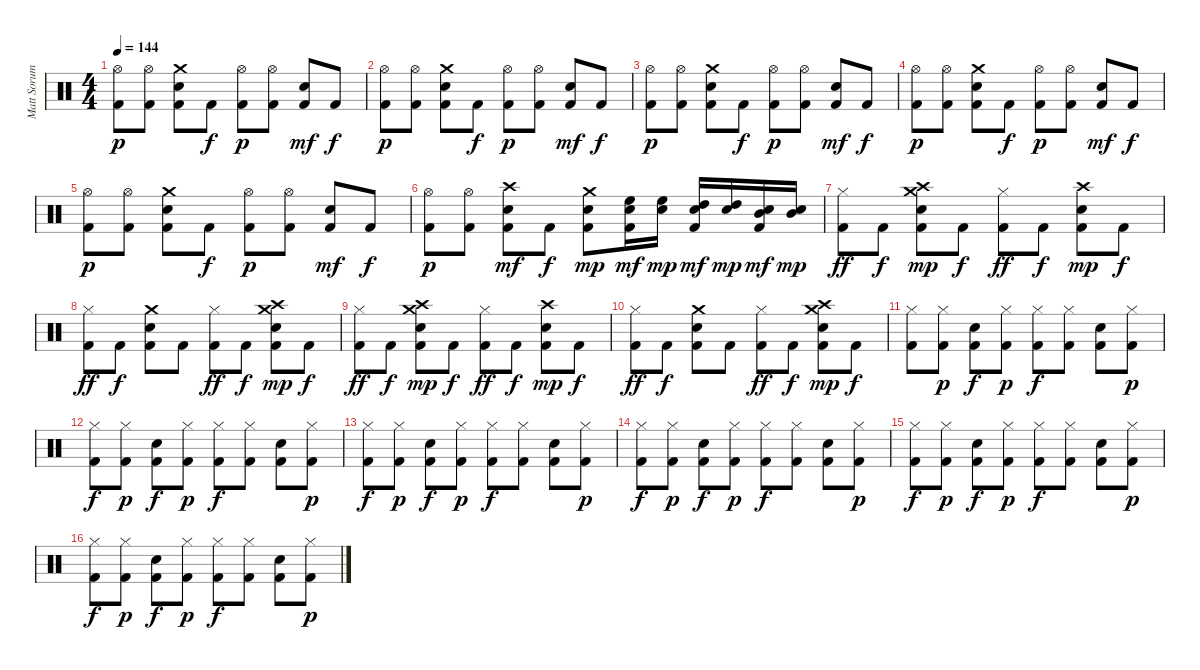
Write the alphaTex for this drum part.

\track ("Matt Sorum" "Matt Sorum") {instrument percussion}
\staff {score}
\articulation defaults
\ts (4 4)
\tempo 144
\clef neutral
\ks c
("Kick (hit) 2" "Hi-Hat (open)").8{dy p} ("Kick (hit) 2" "Hi-Hat (open)").8 ("Kick (hit) 2" "Snare (hit) 2" "Crash medium (hit)").8 "Kick (hit) 2".8{dy f} ("Kick (hit) 2" "Hi-Hat (open)").8{dy p} ("Kick (hit) 2" "Hi-Hat (open)").8 ("Kick (hit) 2" "Snare (hit) 2").8{dy mf} "Kick (hit) 2".8{dy f} |
("Kick (hit) 2" "Hi-Hat (open)").8{dy p} ("Kick (hit) 2" "Hi-Hat (open)").8 ("Kick (hit) 2" "Snare (hit) 2" "Crash medium (hit)").8 "Kick (hit) 2".8{dy f} ("Kick (hit) 2" "Hi-Hat (open)").8{dy p} ("Kick (hit) 2" "Hi-Hat (open)").8 ("Kick (hit) 2" "Snare (hit) 2").8{dy mf} "Kick (hit) 2".8{dy f} |
("Kick (hit) 2" "Hi-Hat (open)").8{dy p} ("Kick (hit) 2" "Hi-Hat (open)").8 ("Kick (hit) 2" "Snare (hit) 2" "Crash medium (hit)").8 "Kick (hit) 2".8{dy f} ("Kick (hit) 2" "Hi-Hat (open)").8{dy p} ("Kick (hit) 2" "Hi-Hat (open)").8 ("Kick (hit) 2" "Snare (hit) 2").8{dy mf} "Kick (hit) 2".8{dy f} |
("Kick (hit) 2" "Hi-Hat (open)").8{dy p} ("Kick (hit) 2" "Hi-Hat (open)").8 ("Kick (hit) 2" "Snare (hit) 2" "Crash medium (hit)").8 "Kick (hit) 2".8{dy f} ("Kick (hit) 2" "Hi-Hat (open)").8{dy p} ("Kick (hit) 2" "Hi-Hat (open)").8 ("Kick (hit) 2" "Snare (hit) 2").8{dy mf} "Kick (hit) 2".8{dy f} |
("Kick (hit) 2" "Hi-Hat (open)").8{dy p} ("Kick (hit) 2" "Hi-Hat (open)").8 ("Kick (hit) 2" "Snare (hit) 2" "Crash medium (hit)").8 "Kick (hit) 2".8{dy f} ("Kick (hit) 2" "Hi-Hat (open)").8{dy p} ("Kick (hit) 2" "Hi-Hat (open)").8 ("Kick (hit) 2" "Snare (hit) 2").8{dy mf} "Kick (hit) 2".8{dy f} |
("Kick (hit) 2" "Hi-Hat (open)").8{dy p} ("Kick (hit) 2" "Hi-Hat (open)").8 ("Kick (hit) 2" "Snare (hit) 2" "Crash high (hit)").8{dy mf} "Kick (hit) 2".8{dy f} ("Kick (hit) 2" "Snare (hit) 2" "Crash medium (hit)").8{dy mp} ("Kick (hit) 2" "Snare (hit) 2" "High Floor Tom (hit)").16{dy mf} ("Snare (hit) 2" "High Floor Tom (hit)").16{dy mp} ("Kick (hit) 2" "Snare (hit) 2" "High Tom (hit)").16{dy mf} ("Snare (hit) 2" "High Tom (hit)").16{dy mp} ("Kick (hit) 2" "Snare (hit) 2" "Mid Tom (hit)").16{dy mf} ("Snare (hit) 2" "Mid Tom (hit)").16{dy mp} |
("Kick (hit) 2" "Hi-Hat (closed)").8{dy ff} "Kick (hit) 2".8{dy f} ("Kick (hit) 2" "Snare (hit) 2" "Crash medium (hit)" "Crash high (hit)").8{dy mp} "Kick (hit) 2".8{dy f} ("Kick (hit) 2" "Hi-Hat (closed)").8{dy ff} "Kick (hit) 2".8{dy f} ("Kick (hit) 2" "Snare (hit) 2" "Crash high (hit)").8{dy mp} "Kick (hit) 2".8{dy f} |
("Kick (hit) 2" "Hi-Hat (closed)").8{dy ff} "Kick (hit) 2".8{dy f} ("Kick (hit) 2" "Snare (hit) 2" "Crash medium (hit)").8 "Kick (hit) 2".8 ("Kick (hit) 2" "Hi-Hat (closed)").8{dy ff} "Kick (hit) 2".8{dy f} ("Kick (hit) 2" "Snare (hit) 2" "Crash medium (hit)" "Crash high (hit)").8{dy mp} "Kick (hit) 2".8{dy f} |
("Kick (hit) 2" "Hi-Hat (closed)").8{dy ff} "Kick (hit) 2".8{dy f} ("Kick (hit) 2" "Snare (hit) 2" "Crash medium (hit)" "Crash high (hit)").8{dy mp} "Kick (hit) 2".8{dy f} ("Kick (hit) 2" "Hi-Hat (closed)").8{dy ff} "Kick (hit) 2".8{dy f} ("Kick (hit) 2" "Snare (hit) 2" "Crash high (hit)").8{dy mp} "Kick (hit) 2".8{dy f} |
("Kick (hit) 2" "Hi-Hat (closed)").8{dy ff} "Kick (hit) 2".8{dy f} ("Kick (hit) 2" "Snare (hit) 2" "Crash medium (hit)").8 "Kick (hit) 2".8 ("Kick (hit) 2" "Hi-Hat (closed)").8{dy ff} "Kick (hit) 2".8{dy f} ("Kick (hit) 2" "Snare (hit) 2" "Crash medium (hit)" "Crash high (hit)").8{dy mp} "Kick (hit) 2".8{dy f} |
("Kick (hit) 2" "Hi-Hat (closed)").8 ("Kick (hit) 2" "Hi-Hat (closed)").8{dy p} ("Kick (hit) 2" "Snare (hit) 2").8{dy f} ("Kick (hit) 2" "Hi-Hat (closed)").8{dy p} ("Kick (hit) 2" "Hi-Hat (closed)").8{dy f} ("Kick (hit) 2" "Hi-Hat (closed)").8 ("Kick (hit) 2" "Snare (hit) 2").8 ("Kick (hit) 2" "Hi-Hat (closed)").8{dy p} |
("Kick (hit) 2" "Hi-Hat (closed)").8{dy f} ("Kick (hit) 2" "Hi-Hat (closed)").8{dy p} ("Kick (hit) 2" "Snare (hit) 2").8{dy f} ("Kick (hit) 2" "Hi-Hat (closed)").8{dy p} ("Kick (hit) 2" "Hi-Hat (closed)").8{dy f} ("Kick (hit) 2" "Hi-Hat (closed)").8 ("Kick (hit) 2" "Snare (hit) 2").8 ("Kick (hit) 2" "Hi-Hat (closed)").8{dy p} |
("Kick (hit) 2" "Hi-Hat (closed)").8{dy f} ("Kick (hit) 2" "Hi-Hat (closed)").8{dy p} ("Kick (hit) 2" "Snare (hit) 2").8{dy f} ("Kick (hit) 2" "Hi-Hat (closed)").8{dy p} ("Kick (hit) 2" "Hi-Hat (closed)").8{dy f} ("Kick (hit) 2" "Hi-Hat (closed)").8 ("Kick (hit) 2" "Snare (hit) 2").8 ("Kick (hit) 2" "Hi-Hat (closed)").8{dy p} |
("Kick (hit) 2" "Hi-Hat (closed)").8{dy f} ("Kick (hit) 2" "Hi-Hat (closed)").8{dy p} ("Kick (hit) 2" "Snare (hit) 2").8{dy f} ("Kick (hit) 2" "Hi-Hat (closed)").8{dy p} ("Kick (hit) 2" "Hi-Hat (closed)").8{dy f} ("Kick (hit) 2" "Hi-Hat (closed)").8 ("Kick (hit) 2" "Snare (hit) 2").8 ("Kick (hit) 2" "Hi-Hat (closed)").8{dy p} |
("Kick (hit) 2" "Hi-Hat (closed)").8{dy f} ("Kick (hit) 2" "Hi-Hat (closed)").8{dy p} ("Kick (hit) 2" "Snare (hit) 2").8{dy f} ("Kick (hit) 2" "Hi-Hat (closed)").8{dy p} ("Kick (hit) 2" "Hi-Hat (closed)").8{dy f} ("Kick (hit) 2" "Hi-Hat (closed)").8 ("Kick (hit) 2" "Snare (hit) 2").8 ("Kick (hit) 2" "Hi-Hat (closed)").8{dy p} |
("Kick (hit) 2" "Hi-Hat (closed)").8{dy f} ("Kick (hit) 2" "Hi-Hat (closed)").8{dy p} ("Kick (hit) 2" "Snare (hit) 2").8{dy f} ("Kick (hit) 2" "Hi-Hat (closed)").8{dy p} ("Kick (hit) 2" "Hi-Hat (closed)").8{dy f} ("Kick (hit) 2" "Hi-Hat (closed)").8 ("Kick (hit) 2" "Snare (hit) 2").8 ("Kick (hit) 2" "Hi-Hat (closed)").8{dy p}
